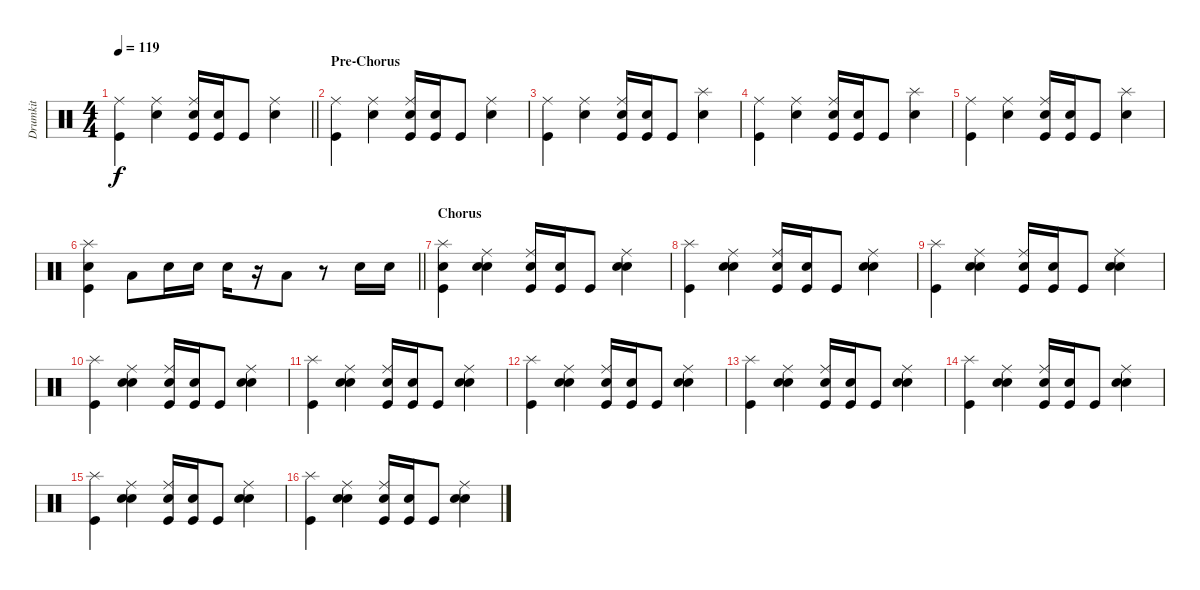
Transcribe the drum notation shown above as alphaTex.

\track ("Drumkit" "Drumkit") {instrument percussion}
\staff {score}
\articulation defaults
\ts (4 4)
\tempo 119
\clef neutral
\barLineRight lightlight
\ks c
("Kick (hit)" "Ride (middle)").4{dy f} ("Snare (hit) 2" "Ride (middle)").4 ("Kick (hit)" "Snare (hit) 2" "Ride (middle)").16 ("Kick (hit)" "Snare (hit) 2").16 "Kick (hit)".8 ("Snare (hit) 2" "Ride (middle)").4 |
\section ("" "Pre-Chorus")
("Kick (hit)" "Ride (middle)").4 ("Snare (hit) 2" "Ride (middle)").4 ("Kick (hit)" "Snare (hit) 2" "Ride (middle)").16 ("Kick (hit)" "Snare (hit) 2").16 "Kick (hit)".8 ("Snare (hit) 2" "Ride (middle)").4 |
("Kick (hit)" "Ride (middle)").4 ("Snare (hit) 2" "Ride (middle)").4 ("Kick (hit)" "Snare (hit) 2" "Ride (middle)").16 ("Kick (hit)" "Snare (hit) 2").16 "Kick (hit)".8 ("Snare (hit) 2" "Splash (hit)").4 |
("Kick (hit)" "Ride (middle)").4 ("Snare (hit) 2" "Ride (middle)").4 ("Kick (hit)" "Snare (hit) 2" "Ride (middle)").16 ("Kick (hit)" "Snare (hit) 2").16 "Kick (hit)".8 ("Snare (hit) 2" "Splash (hit)").4 |
("Kick (hit)" "Ride (middle)").4 ("Snare (hit) 2" "Ride (middle)").4 ("Kick (hit)" "Snare (hit) 2" "Ride (middle)").16 ("Kick (hit)" "Snare (hit) 2").16 "Kick (hit)".8 ("Snare (hit) 2" "Splash (hit)").4 |
\barLineRight lightlight
("Kick (hit)" "Snare (hit) 2" "Splash (hit)").4 "Low Tom (hit)".8 "Snare (hit) 2".16 "Snare (hit) 2".16 "Snare (hit) 2".16 r.16 "Low Tom (hit)".8 r.8 "Snare (hit) 2".16 "Snare (hit) 2".16 |
\section ("" "Chorus")
("Kick (hit)" "Splash (hit)" "Snare (hit) 2").4 ("Hand Clap (hit)" "Snare (hit) 2" "Ride (middle)").4 ("Kick (hit)" "Snare (hit) 2" "Ride (middle)").16 ("Kick (hit)" "Snare (hit) 2").16 "Kick (hit)".8 ("Hand Clap (hit)" "Snare (hit) 2" "Ride (middle)").4 |
("Kick (hit)" "Splash (hit)").4 ("Hand Clap (hit)" "Snare (hit) 2" "Ride (middle)").4 ("Kick (hit)" "Snare (hit) 2" "Ride (middle)").16 ("Kick (hit)" "Snare (hit) 2").16 "Kick (hit)".8 ("Hand Clap (hit)" "Snare (hit) 2" "Ride (middle)").4 |
("Kick (hit)" "Splash (hit)").4 ("Hand Clap (hit)" "Snare (hit) 2" "Ride (middle)").4 ("Kick (hit)" "Snare (hit) 2" "Ride (middle)").16 ("Kick (hit)" "Snare (hit) 2").16 "Kick (hit)".8 ("Hand Clap (hit)" "Snare (hit) 2" "Ride (middle)").4 |
("Kick (hit)" "Splash (hit)").4 ("Hand Clap (hit)" "Snare (hit) 2" "Ride (middle)").4 ("Kick (hit)" "Snare (hit) 2" "Ride (middle)").16 ("Kick (hit)" "Snare (hit) 2").16 "Kick (hit)".8 ("Hand Clap (hit)" "Snare (hit) 2" "Ride (middle)").4 |
("Kick (hit)" "Splash (hit)").4 ("Hand Clap (hit)" "Snare (hit) 2" "Ride (middle)").4 ("Kick (hit)" "Snare (hit) 2" "Ride (middle)").16 ("Kick (hit)" "Snare (hit) 2").16 "Kick (hit)".8 ("Hand Clap (hit)" "Snare (hit) 2" "Ride (middle)").4 |
("Kick (hit)" "Splash (hit)").4 ("Hand Clap (hit)" "Snare (hit) 2" "Ride (middle)").4 ("Kick (hit)" "Snare (hit) 2" "Ride (middle)").16 ("Kick (hit)" "Snare (hit) 2").16 "Kick (hit)".8 ("Hand Clap (hit)" "Snare (hit) 2" "Ride (middle)").4 |
("Kick (hit)" "Splash (hit)").4 ("Hand Clap (hit)" "Snare (hit) 2" "Ride (middle)").4 ("Kick (hit)" "Snare (hit) 2" "Ride (middle)").16 ("Kick (hit)" "Snare (hit) 2").16 "Kick (hit)".8 ("Hand Clap (hit)" "Snare (hit) 2" "Ride (middle)").4 |
("Kick (hit)" "Splash (hit)").4 ("Hand Clap (hit)" "Snare (hit) 2" "Ride (middle)").4 ("Kick (hit)" "Snare (hit) 2" "Ride (middle)").16 ("Kick (hit)" "Snare (hit) 2").16 "Kick (hit)".8 ("Hand Clap (hit)" "Snare (hit) 2" "Ride (middle)").4 |
("Kick (hit)" "Splash (hit)").4 ("Hand Clap (hit)" "Snare (hit) 2" "Ride (middle)").4 ("Kick (hit)" "Snare (hit) 2" "Ride (middle)").16 ("Kick (hit)" "Snare (hit) 2").16 "Kick (hit)".8 ("Hand Clap (hit)" "Snare (hit) 2" "Ride (middle)").4 |
("Kick (hit)" "Splash (hit)").4 ("Hand Clap (hit)" "Snare (hit) 2" "Ride (middle)").4 ("Kick (hit)" "Snare (hit) 2" "Ride (middle)").16 ("Kick (hit)" "Snare (hit) 2").16 "Kick (hit)".8 ("Hand Clap (hit)" "Snare (hit) 2" "Ride (middle)").4
